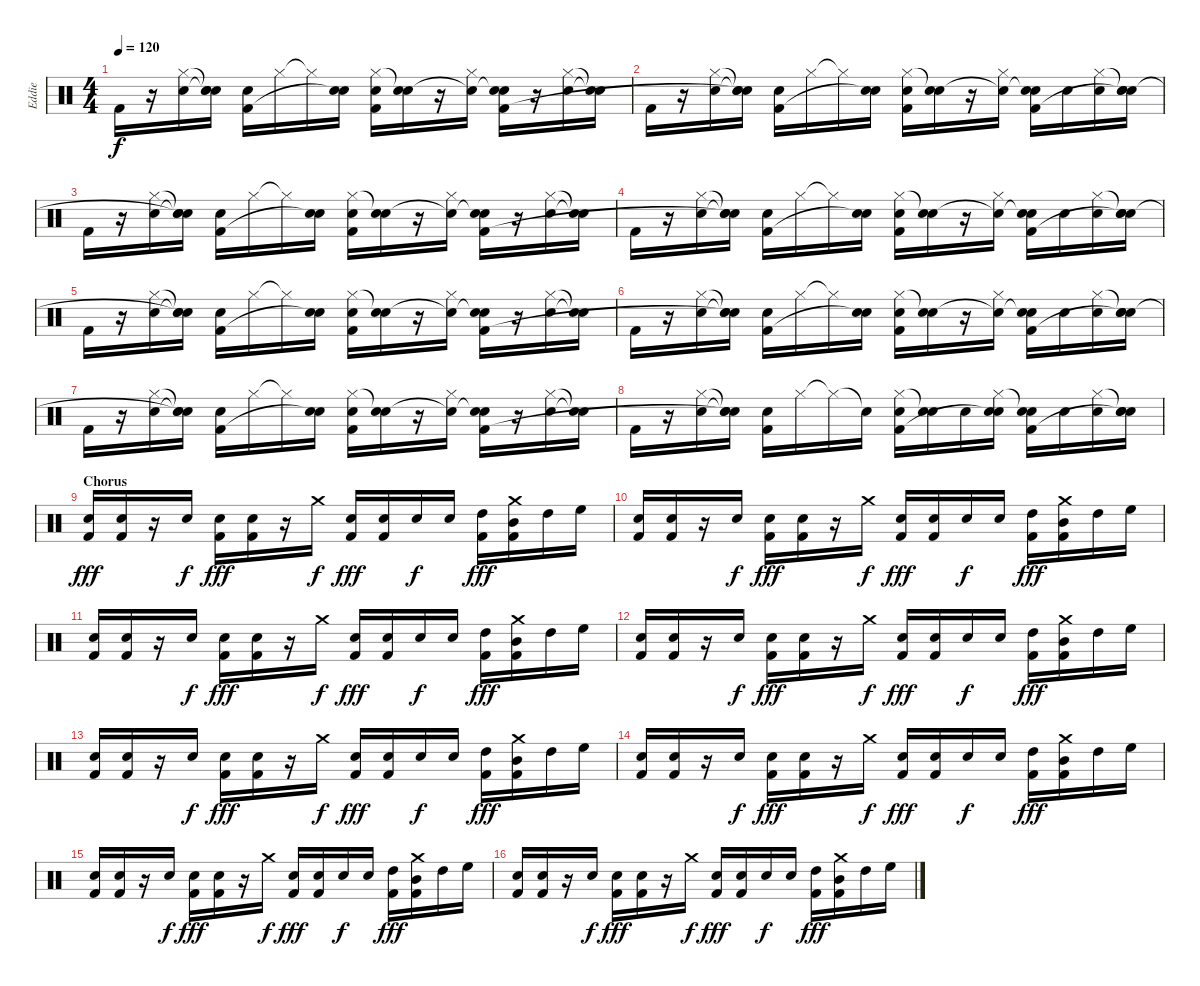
\track ("Eddie" "Eddie") {instrument percussion}
\staff {score}
\articulation defaults
\ts (4 4)
\tempo 120
\clef neutral
\ks c "Kick (hit) 2".16{dy f}
r.16 ("Snare (hit) 2" "Hi-Hat (closed)").16 ("Snare (hit) 2"{t} "Snare (hit)"{t} "Snare (hit)"{t}).16 ("Snare (hit) 2" "Kick (hit) 2").16 "Hi-Hat (closed)".16 "Hi-Hat (closed)"{t}.16 ("Snare (hit) 2" "Snare (hit)"{t}).16 ("Snare (hit) 2" "Hi-Hat (closed)" "Kick (hit) 2").16 ("Snare (hit) 2" "Snare (hit)"{t}).16 r.16 ("Hi-Hat (closed)" "Snare (hit)"{t}).16 ("Snare (hit) 2" "Snare (hit)"{t} "Kick (hit) 2").16 r.16 ("Snare (hit) 2" "Hi-Hat (closed)").16 ("Snare (hit)"{t} "Snare (hit)"{t}).16 |
"Kick (hit) 2".16 r.16 ("Snare (hit) 2" "Hi-Hat (closed)").16 ("Snare (hit) 2"{t} "Snare (hit)"{t} "Snare (hit)"{t}).16 ("Snare (hit) 2" "Kick (hit) 2").16 "Hi-Hat (closed)".16 "Hi-Hat (closed)"{t}.16 ("Snare (hit) 2" "Snare (hit)"{t}).16 ("Snare (hit) 2" "Hi-Hat (closed)" "Kick (hit) 2").16 ("Snare (hit) 2" "Snare (hit)"{t}).16 r.16 ("Hi-Hat (closed)" "Snare (hit)"{t}).16 ("Snare (hit) 2" "Snare (hit)"{t} "Kick (hit) 2").16 "Electric Snare (hit)".16 ("Snare (hit) 2" "Hi-Hat (closed)").16 ("Electric Snare (hit)" "Snare (hit)"{t} "Snare (hit)"{t}).16 |
"Kick (hit) 2".16 r.16 ("Snare (hit) 2" "Hi-Hat (closed)").16 ("Snare (hit) 2"{t} "Snare (hit)"{t} "Snare (hit)"{t}).16 ("Snare (hit) 2" "Kick (hit) 2").16 "Hi-Hat (closed)".16 "Hi-Hat (closed)"{t}.16 ("Snare (hit) 2" "Snare (hit)"{t}).16 ("Snare (hit) 2" "Hi-Hat (closed)" "Kick (hit) 2").16 ("Snare (hit) 2" "Snare (hit)"{t}).16 r.16 ("Hi-Hat (closed)" "Snare (hit)"{t}).16 ("Snare (hit) 2" "Snare (hit)"{t} "Kick (hit) 2").16 r.16 ("Snare (hit) 2" "Hi-Hat (closed)").16 ("Snare (hit)"{t} "Snare (hit)"{t}).16 |
"Kick (hit) 2".16 r.16 ("Snare (hit) 2" "Hi-Hat (closed)").16 ("Snare (hit) 2"{t} "Snare (hit)"{t} "Snare (hit)"{t}).16 ("Snare (hit) 2" "Kick (hit) 2").16 "Hi-Hat (closed)".16 "Hi-Hat (closed)"{t}.16 ("Snare (hit) 2" "Snare (hit)"{t}).16 ("Snare (hit) 2" "Hi-Hat (closed)" "Kick (hit) 2").16 ("Snare (hit) 2" "Snare (hit)"{t}).16 r.16 ("Hi-Hat (closed)" "Snare (hit)"{t}).16 ("Snare (hit) 2" "Snare (hit)"{t} "Kick (hit) 2").16 "Electric Snare (hit)".16 ("Snare (hit) 2" "Hi-Hat (closed)").16 ("Electric Snare (hit)" "Snare (hit)"{t} "Snare (hit)"{t}).16 |
"Kick (hit) 2".16 r.16 ("Snare (hit) 2" "Hi-Hat (closed)").16 ("Snare (hit) 2"{t} "Snare (hit)"{t} "Snare (hit)"{t}).16 ("Snare (hit) 2" "Kick (hit) 2").16 "Hi-Hat (closed)".16 "Hi-Hat (closed)"{t}.16 ("Snare (hit) 2" "Snare (hit)"{t}).16 ("Snare (hit) 2" "Hi-Hat (closed)" "Kick (hit) 2").16 ("Snare (hit) 2" "Snare (hit)"{t}).16 r.16 ("Hi-Hat (closed)" "Snare (hit)"{t}).16 ("Snare (hit) 2" "Snare (hit)"{t} "Kick (hit) 2").16 r.16 ("Snare (hit) 2" "Hi-Hat (closed)").16 ("Snare (hit)"{t} "Snare (hit)"{t}).16 |
"Kick (hit) 2".16 r.16 ("Snare (hit) 2" "Hi-Hat (closed)").16 ("Snare (hit) 2"{t} "Snare (hit)"{t} "Snare (hit)"{t}).16 ("Snare (hit) 2" "Kick (hit) 2").16 "Hi-Hat (closed)".16 "Hi-Hat (closed)"{t}.16 ("Snare (hit) 2" "Snare (hit)"{t}).16 ("Snare (hit) 2" "Hi-Hat (closed)" "Kick (hit) 2").16 ("Snare (hit) 2" "Snare (hit)"{t}).16 r.16 ("Hi-Hat (closed)" "Snare (hit)"{t}).16 ("Snare (hit) 2" "Snare (hit)"{t} "Kick (hit) 2").16 "Electric Snare (hit)".16 ("Snare (hit) 2" "Hi-Hat (closed)").16 ("Electric Snare (hit)" "Snare (hit)"{t} "Snare (hit)"{t}).16 |
"Kick (hit) 2".16 r.16 ("Snare (hit) 2" "Hi-Hat (closed)").16 ("Snare (hit) 2"{t} "Snare (hit)"{t} "Snare (hit)"{t}).16 ("Snare (hit) 2" "Kick (hit) 2").16 "Hi-Hat (closed)".16 "Hi-Hat (closed)"{t}.16 ("Snare (hit) 2" "Snare (hit)"{t}).16 ("Snare (hit) 2" "Hi-Hat (closed)" "Kick (hit) 2").16 ("Snare (hit) 2" "Snare (hit)"{t}).16 r.16 ("Hi-Hat (closed)" "Snare (hit)"{t}).16 ("Snare (hit) 2" "Snare (hit)"{t} "Kick (hit) 2").16 r.16 ("Snare (hit) 2" "Hi-Hat (closed)").16 ("Snare (hit)"{t} "Snare (hit)"{t}).16 |
"Kick (hit) 2".16 r.16 ("Snare (hit) 2" "Hi-Hat (closed)").16 ("Snare (hit) 2"{t} "Snare (hit)"{t} "Snare (hit)"{t}).16 ("Snare (hit) 2" "Kick (hit) 2").16 "Hi-Hat (closed)".16 "Hi-Hat (closed)"{t}.16 "Snare (hit)"{t}.16 ("Snare (hit) 2" "Hi-Hat (closed)" "Kick (hit) 2").16 ("Electric Snare (hit)" "Snare (hit)"{t}).16 "Snare (hit) 2".16 ("Electric Snare (hit)" "Hi-Hat (closed)" "Snare (hit)"{t}).16 ("Snare (hit) 2" "Snare (hit)"{t} "Kick (hit) 2").16 "Electric Snare (hit)".16 ("Snare (hit) 2" "Hi-Hat (closed)").16 ("Electric Snare (hit)" "Snare (hit)"{t} "Snare (hit)"{t}).16 |
\section ("" "Chorus")
("Snare (hit) 2" "Kick (hit) 2").16{dy fff} ("Electric Snare (hit)" "Kick (hit) 2").16 r.16 "Electric Snare (hit)".16{dy f} ("Snare (hit) 2" "Kick (hit) 2").16{dy fff} ("Electric Snare (hit)" "Kick (hit) 2").16 r.16 "Crash medium (hit)".16{dy f} ("Snare (hit) 2" "Kick (hit) 2").16{dy fff} ("Electric Snare (hit)" "Kick (hit) 2").16 "Snare (hit) 2".16{dy f} "Electric Snare (hit)".16 ("High Tom (hit)" "Kick (hit) 2").16{dy fff} ("Mid Tom (hit)" "Crash medium (hit)" "Kick (hit) 2").16 "High Tom (hit)".16 "High Floor Tom (hit)".16 |
("Snare (hit) 2" "Kick (hit) 2").16 ("Electric Snare (hit)" "Kick (hit) 2").16 r.16 "Electric Snare (hit)".16{dy f} ("Snare (hit) 2" "Kick (hit) 2").16{dy fff} ("Electric Snare (hit)" "Kick (hit) 2").16 r.16 "Crash medium (hit)".16{dy f} ("Snare (hit) 2" "Kick (hit) 2").16{dy fff} ("Electric Snare (hit)" "Kick (hit) 2").16 "Snare (hit) 2".16{dy f} "Electric Snare (hit)".16 ("High Tom (hit)" "Kick (hit) 2").16{dy fff} ("Mid Tom (hit)" "Crash medium (hit)" "Kick (hit) 2").16 "High Tom (hit)".16 "High Floor Tom (hit)".16 |
("Snare (hit) 2" "Kick (hit) 2").16 ("Electric Snare (hit)" "Kick (hit) 2").16 r.16 "Electric Snare (hit)".16{dy f} ("Snare (hit) 2" "Kick (hit) 2").16{dy fff} ("Electric Snare (hit)" "Kick (hit) 2").16 r.16 "Crash medium (hit)".16{dy f} ("Snare (hit) 2" "Kick (hit) 2").16{dy fff} ("Electric Snare (hit)" "Kick (hit) 2").16 "Snare (hit) 2".16{dy f} "Electric Snare (hit)".16 ("High Tom (hit)" "Kick (hit) 2").16{dy fff} ("Mid Tom (hit)" "Crash medium (hit)" "Kick (hit) 2").16 "High Tom (hit)".16 "High Floor Tom (hit)".16 |
("Snare (hit) 2" "Kick (hit) 2").16 ("Electric Snare (hit)" "Kick (hit) 2").16 r.16 "Electric Snare (hit)".16{dy f} ("Snare (hit) 2" "Kick (hit) 2").16{dy fff} ("Electric Snare (hit)" "Kick (hit) 2").16 r.16 "Crash medium (hit)".16{dy f} ("Snare (hit) 2" "Kick (hit) 2").16{dy fff} ("Electric Snare (hit)" "Kick (hit) 2").16 "Snare (hit) 2".16{dy f} "Electric Snare (hit)".16 ("High Tom (hit)" "Kick (hit) 2").16{dy fff} ("Mid Tom (hit)" "Crash medium (hit)" "Kick (hit) 2").16 "High Tom (hit)".16 "High Floor Tom (hit)".16 |
("Snare (hit) 2" "Kick (hit) 2").16 ("Electric Snare (hit)" "Kick (hit) 2").16 r.16 "Electric Snare (hit)".16{dy f} ("Snare (hit) 2" "Kick (hit) 2").16{dy fff} ("Electric Snare (hit)" "Kick (hit) 2").16 r.16 "Crash medium (hit)".16{dy f} ("Snare (hit) 2" "Kick (hit) 2").16{dy fff} ("Electric Snare (hit)" "Kick (hit) 2").16 "Snare (hit) 2".16{dy f} "Electric Snare (hit)".16 ("High Tom (hit)" "Kick (hit) 2").16{dy fff} ("Mid Tom (hit)" "Crash medium (hit)" "Kick (hit) 2").16 "High Tom (hit)".16 "High Floor Tom (hit)".16 |
("Snare (hit) 2" "Kick (hit) 2").16 ("Electric Snare (hit)" "Kick (hit) 2").16 r.16 "Electric Snare (hit)".16{dy f} ("Snare (hit) 2" "Kick (hit) 2").16{dy fff} ("Electric Snare (hit)" "Kick (hit) 2").16 r.16 "Crash medium (hit)".16{dy f} ("Snare (hit) 2" "Kick (hit) 2").16{dy fff} ("Electric Snare (hit)" "Kick (hit) 2").16 "Snare (hit) 2".16{dy f} "Electric Snare (hit)".16 ("High Tom (hit)" "Kick (hit) 2").16{dy fff} ("Mid Tom (hit)" "Crash medium (hit)" "Kick (hit) 2").16 "High Tom (hit)".16 "High Floor Tom (hit)".16 |
("Snare (hit) 2" "Kick (hit) 2").16 ("Electric Snare (hit)" "Kick (hit) 2").16 r.16 "Electric Snare (hit)".16{dy f} ("Snare (hit) 2" "Kick (hit) 2").16{dy fff} ("Electric Snare (hit)" "Kick (hit) 2").16 r.16 "Crash medium (hit)".16{dy f} ("Snare (hit) 2" "Kick (hit) 2").16{dy fff} ("Electric Snare (hit)" "Kick (hit) 2").16 "Snare (hit) 2".16{dy f} "Electric Snare (hit)".16 ("High Tom (hit)" "Kick (hit) 2").16{dy fff} ("Mid Tom (hit)" "Crash medium (hit)" "Kick (hit) 2").16 "High Tom (hit)".16 "High Floor Tom (hit)".16 |
("Snare (hit) 2" "Kick (hit) 2").16 ("Electric Snare (hit)" "Kick (hit) 2").16 r.16 "Electric Snare (hit)".16{dy f} ("Snare (hit) 2" "Kick (hit) 2").16{dy fff} ("Electric Snare (hit)" "Kick (hit) 2").16 r.16 "Crash medium (hit)".16{dy f} ("Snare (hit) 2" "Kick (hit) 2").16{dy fff} ("Electric Snare (hit)" "Kick (hit) 2").16 "Snare (hit) 2".16{dy f} "Electric Snare (hit)".16 ("High Tom (hit)" "Kick (hit) 2").16{dy fff} ("Mid Tom (hit)" "Crash medium (hit)" "Kick (hit) 2").16 "High Tom (hit)".16 "High Floor Tom (hit)".16
